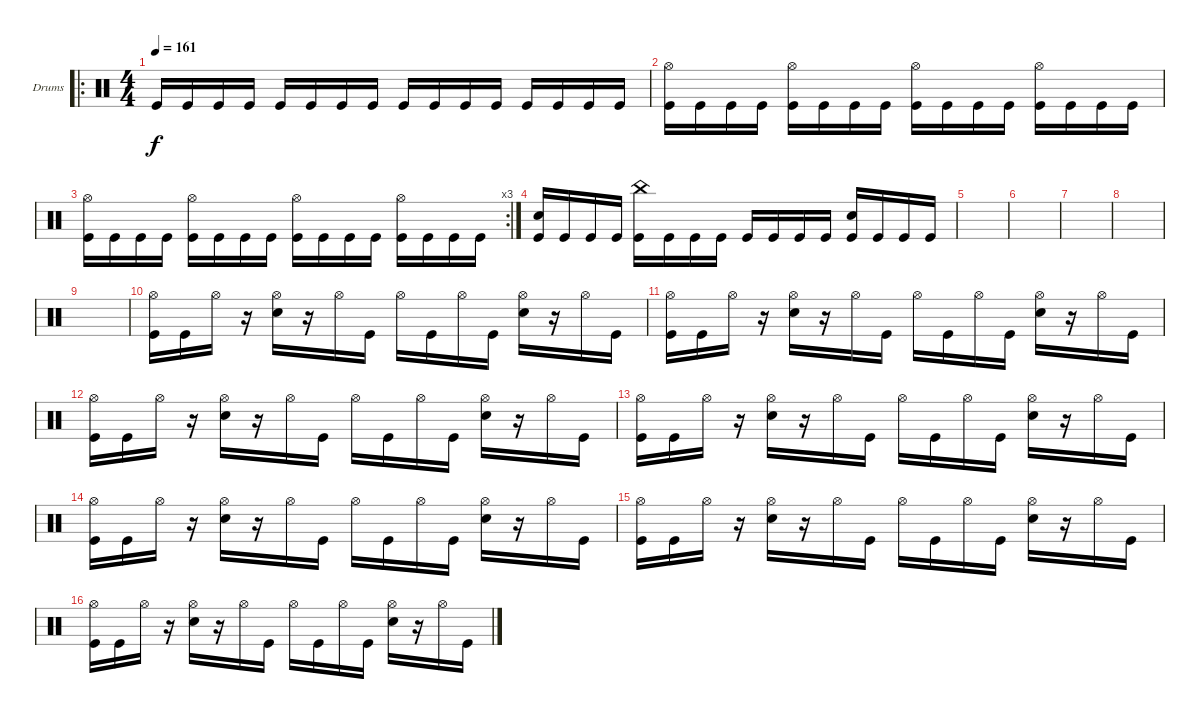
\bracketExtendMode groupsimilarinstruments
\firstSystemTrackNameOrientation horizontal
\otherSystemsTrackNameOrientation horizontal
\track ("Drumkit" "Drums") {instrument percussion}
\staff {score}
\articulation defaults
\ro
\ts (4 4)
\tempo 161
\clef neutral
\ks c "Kick (hit)".16{dy f} "Kick (hit)".16 "Kick (hit)".16 "Kick (hit)".16 "Kick (hit)".16 "Kick (hit)".16 "Kick (hit)".16 "Kick (hit)".16 "Kick (hit)".16 "Kick (hit)".16 "Kick (hit)".16 "Kick (hit)".16 "Kick (hit)".16 "Kick (hit)".16 "Kick (hit)".16 "Kick (hit)".16
|
("Kick (hit)" "Hi-Hat (open)").16 "Kick (hit)".16 "Kick (hit)".16 "Kick (hit)".16 ("Kick (hit)" "Hi-Hat (open)").16 "Kick (hit)".16 "Kick (hit)".16 "Kick (hit)".16 ("Kick (hit)" "Hi-Hat (open)").16 "Kick (hit)".16 "Kick (hit)".16 "Kick (hit)".16 ("Kick (hit)" "Hi-Hat (open)").16 "Kick (hit)".16 "Kick (hit)".16 "Kick (hit)".16 |
\rc 3
("Kick (hit)" "Hi-Hat (open)").16 "Kick (hit)".16 "Kick (hit)".16 "Kick (hit)".16 ("Kick (hit)" "Hi-Hat (open)").16 "Kick (hit)".16 "Kick (hit)".16 "Kick (hit)".16 ("Kick (hit)" "Hi-Hat (open)").16 "Kick (hit)".16 "Kick (hit)".16 "Kick (hit)".16 ("Kick (hit)" "Hi-Hat (open)").16 "Kick (hit)".16 "Kick (hit)".16 "Kick (hit)".16 |
("Snare (hit) 2" "Kick (hit)").16 "Kick (hit)".16 "Kick (hit)".16 "Kick (hit)".16 ("China (hit)" "Kick (hit)").16 "Kick (hit)".16 "Kick (hit)".16 "Kick (hit)".16 "Kick (hit)".16 "Kick (hit)".16 "Kick (hit)".16 "Kick (hit)".16 ("Snare (hit) 2" "Kick (hit)").16 "Kick (hit)".16 "Kick (hit)".16 "Kick (hit)".16 |
|
|
|
|
|
("Hi-Hat (open)" "Kick (hit)").16 "Kick (hit)".16 "Hi-Hat (open)".16 r.16 ("Hi-Hat (open)" "Snare (hit) 2").16 r.16 "Hi-Hat (open)".16 "Kick (hit)".16 "Hi-Hat (open)".16 "Kick (hit)".16 "Hi-Hat (open)".16 "Kick (hit)".16 ("Hi-Hat (open)" "Snare (hit) 2").16 r.16 "Hi-Hat (open)".16 "Kick (hit)".16 |
("Hi-Hat (open)" "Kick (hit)").16 "Kick (hit)".16 "Hi-Hat (open)".16 r.16 ("Hi-Hat (open)" "Snare (hit) 2").16 r.16 "Hi-Hat (open)".16 "Kick (hit)".16 "Hi-Hat (open)".16 "Kick (hit)".16 "Hi-Hat (open)".16 "Kick (hit)".16 ("Hi-Hat (open)" "Snare (hit) 2").16 r.16 "Hi-Hat (open)".16 "Kick (hit)".16 |
("Hi-Hat (open)" "Kick (hit)").16 "Kick (hit)".16 "Hi-Hat (open)".16 r.16 ("Hi-Hat (open)" "Snare (hit) 2").16 r.16 "Hi-Hat (open)".16 "Kick (hit)".16 "Hi-Hat (open)".16 "Kick (hit)".16 "Hi-Hat (open)".16 "Kick (hit)".16 ("Hi-Hat (open)" "Snare (hit) 2").16 r.16 "Hi-Hat (open)".16 "Kick (hit)".16 |
("Hi-Hat (open)" "Kick (hit)").16 "Kick (hit)".16 "Hi-Hat (open)".16 r.16 ("Hi-Hat (open)" "Snare (hit) 2").16 r.16 "Hi-Hat (open)".16 "Kick (hit)".16 "Hi-Hat (open)".16 "Kick (hit)".16 "Hi-Hat (open)".16 "Kick (hit)".16 ("Hi-Hat (open)" "Snare (hit) 2").16 r.16 "Hi-Hat (open)".16 "Kick (hit)".16 |
("Hi-Hat (open)" "Kick (hit)").16 "Kick (hit)".16 "Hi-Hat (open)".16 r.16 ("Hi-Hat (open)" "Snare (hit) 2").16 r.16 "Hi-Hat (open)".16 "Kick (hit)".16 "Hi-Hat (open)".16 "Kick (hit)".16 "Hi-Hat (open)".16 "Kick (hit)".16 ("Hi-Hat (open)" "Snare (hit) 2").16 r.16 "Hi-Hat (open)".16 "Kick (hit)".16 |
("Hi-Hat (open)" "Kick (hit)").16 "Kick (hit)".16 "Hi-Hat (open)".16 r.16 ("Hi-Hat (open)" "Snare (hit) 2").16 r.16 "Hi-Hat (open)".16 "Kick (hit)".16 "Hi-Hat (open)".16 "Kick (hit)".16 "Hi-Hat (open)".16 "Kick (hit)".16 ("Hi-Hat (open)" "Snare (hit) 2").16 r.16 "Hi-Hat (open)".16 "Kick (hit)".16 |
("Hi-Hat (open)" "Kick (hit)").16 "Kick (hit)".16 "Hi-Hat (open)".16 r.16 ("Hi-Hat (open)" "Snare (hit) 2").16 r.16 "Hi-Hat (open)".16 "Kick (hit)".16 "Hi-Hat (open)".16 "Kick (hit)".16 "Hi-Hat (open)".16 "Kick (hit)".16 ("Hi-Hat (open)" "Snare (hit) 2").16 r.16 "Hi-Hat (open)".16 "Kick (hit)".16
